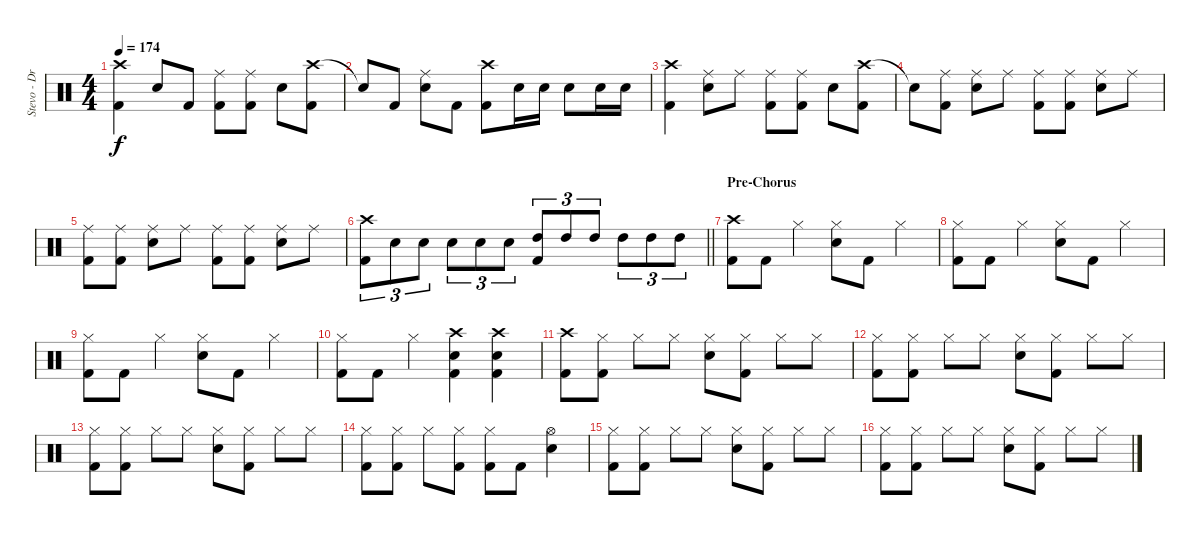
\track ("Stevo - Drums" "Stevo - Dr") {instrument percussion}
\staff {score}
\articulation defaults
\ts (4 4)
\tempo 174
\clef neutral
\ks c
("Crash high (hit)" "Kick (hit) 2").4{dy f} "Electric Snare (hit)".8 "Kick (hit) 2".8 ("Ride (middle)" "Kick (hit) 2").8 ("Ride (middle)" "Kick (hit) 2").8 "Electric Snare (hit)".8 ("Crash high (hit)" "Kick (hit) 2").8 |
"Snare (hit)"{t}.8 "Kick (hit) 2".8 ("Ride (middle)" "Electric Snare (hit)").8 "Kick (hit) 2".8 ("Crash high (hit)" "Kick (hit) 2").8 "Electric Snare (hit)".16 "Electric Snare (hit)".16 "Electric Snare (hit)".8 "Electric Snare (hit)".16 "Electric Snare (hit)".16 |
("Crash high (hit)" "Kick (hit) 2").4 ("Ride (middle)" "Electric Snare (hit)").8 "Ride (middle)".8 ("Ride (middle)" "Kick (hit) 2").8 ("Ride (middle)" "Kick (hit) 2").8 "Electric Snare (hit)".8 ("Crash high (hit)" "Kick (hit) 2").8 |
"Snare (hit)"{t}.8 ("Ride (middle)" "Kick (hit) 2").8 ("Ride (middle)" "Electric Snare (hit)").8 "Ride (middle)".8 ("Ride (middle)" "Kick (hit) 2").8 ("Ride (middle)" "Kick (hit) 2").8 ("Ride (middle)" "Electric Snare (hit)").8 "Ride (middle)".8 |
("Ride (middle)" "Kick (hit) 2").8 ("Ride (middle)" "Kick (hit) 2").8 ("Ride (middle)" "Electric Snare (hit)").8 "Ride (middle)".8 ("Ride (middle)" "Kick (hit) 2").8 ("Ride (middle)" "Kick (hit) 2").8 ("Ride (middle)" "Electric Snare (hit)").8 "Ride (middle)".8 |
\barLineRight lightlight
("Crash high (hit)" "Kick (hit) 2").8{tu (3 2)} "Electric Snare (hit)".8{tu (3 2)} "Electric Snare (hit)".8{tu (3 2)} "Electric Snare (hit)".8{tu (3 2)} "Electric Snare (hit)".8{tu (3 2)} "Electric Snare (hit)".8{tu (3 2)} ("High Tom (hit)" "Kick (hit) 2").8{tu (3 2)} "High Tom (hit)".8{tu (3 2)} "High Tom (hit)".8{tu (3 2)} "High Tom (hit)".8{tu (3 2)} "High Tom (hit)".8{tu (3 2)} "High Tom (hit)".8{tu (3 2)} |
\section ("" "Pre-Chorus")
("Crash high (hit)" "Kick (hit) 2").8 "Kick (hit) 2".8 "Hi-Hat (closed)".4 ("Hi-Hat (closed)" "Electric Snare (hit)").8 "Kick (hit) 2".8 "Hi-Hat (closed)".4 |
("Hi-Hat (closed)" "Kick (hit) 2").8 "Kick (hit) 2".8 "Hi-Hat (closed)".4 ("Hi-Hat (closed)" "Electric Snare (hit)").8 "Kick (hit) 2".8 "Hi-Hat (closed)".4 |
("Hi-Hat (closed)" "Kick (hit) 2").8 "Kick (hit) 2".8 "Hi-Hat (closed)".4 ("Hi-Hat (closed)" "Electric Snare (hit)").8 "Kick (hit) 2".8 "Hi-Hat (closed)".4 |
("Hi-Hat (closed)" "Kick (hit) 2").8 "Kick (hit) 2".8 "Hi-Hat (closed)".4 ("Crash high (hit)" "Electric Snare (hit)" "Kick (hit) 2").4 ("Crash high (hit)" "Electric Snare (hit)" "Kick (hit) 2").4 |
("Crash high (hit)" "Kick (hit) 2").8 ("Hi-Hat (closed)" "Kick (hit) 2").8 "Hi-Hat (closed)".8 "Hi-Hat (closed)".8 ("Hi-Hat (closed)" "Electric Snare (hit)").8 ("Hi-Hat (closed)" "Kick (hit) 2").8 "Hi-Hat (closed)".8 "Hi-Hat (closed)".8 |
("Hi-Hat (closed)" "Kick (hit) 2").8 ("Hi-Hat (closed)" "Kick (hit) 2").8 "Hi-Hat (closed)".8 "Hi-Hat (closed)".8 ("Hi-Hat (closed)" "Electric Snare (hit)").8 ("Hi-Hat (closed)" "Kick (hit) 2").8 "Hi-Hat (closed)".8 "Hi-Hat (closed)".8 |
("Hi-Hat (closed)" "Kick (hit) 2").8 ("Hi-Hat (closed)" "Kick (hit) 2").8 "Hi-Hat (closed)".8 "Hi-Hat (closed)".8 ("Hi-Hat (closed)" "Electric Snare (hit)").8 ("Hi-Hat (closed)" "Kick (hit) 2").8 "Hi-Hat (closed)".8 "Hi-Hat (closed)".8 |
("Hi-Hat (closed)" "Kick (hit) 2").8 ("Hi-Hat (closed)" "Kick (hit) 2").8 "Hi-Hat (closed)".8 ("Hi-Hat (closed)" "Kick (hit) 2").8 ("Hi-Hat (closed)" "Kick (hit) 2").8 "Kick (hit) 2".8 ("Hi-Hat (open)" "Electric Snare (hit)").4 |
("Hi-Hat (closed)" "Kick (hit) 2").8 ("Hi-Hat (closed)" "Kick (hit) 2").8 "Hi-Hat (closed)".8 "Hi-Hat (closed)".8 ("Hi-Hat (closed)" "Electric Snare (hit)").8 ("Hi-Hat (closed)" "Kick (hit) 2").8 "Hi-Hat (closed)".8 "Hi-Hat (closed)".8 |
("Hi-Hat (closed)" "Kick (hit) 2").8 ("Hi-Hat (closed)" "Kick (hit) 2").8 "Hi-Hat (closed)".8 "Hi-Hat (closed)".8 ("Hi-Hat (closed)" "Electric Snare (hit)").8 ("Hi-Hat (closed)" "Kick (hit) 2").8 "Hi-Hat (closed)".8 "Hi-Hat (closed)".8
